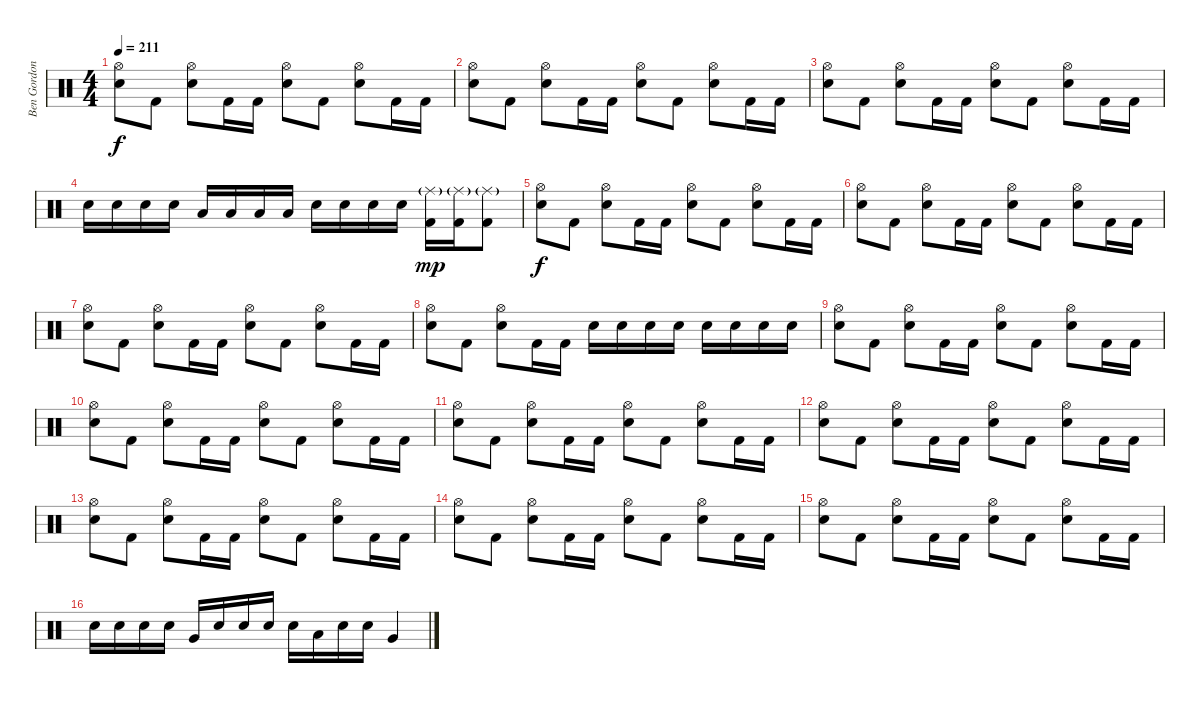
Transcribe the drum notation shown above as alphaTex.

\track ("Ben Gordon" "Ben Gordon") {instrument percussion}
\staff {score}
\articulation defaults
\ts (4 4)
\tempo 211
\clef neutral
\ks c
("Hi-Hat (open)" "Electric Snare (hit)").8{dy f} "Kick (hit) 2".8 ("Hi-Hat (open)" "Electric Snare (hit)").8 "Kick (hit) 2".16 "Kick (hit) 2".16 ("Hi-Hat (open)" "Electric Snare (hit)").8 "Kick (hit) 2".8 ("Hi-Hat (open)" "Electric Snare (hit)").8 "Kick (hit) 2".16 "Kick (hit) 2".16 |
("Hi-Hat (open)" "Electric Snare (hit)").8 "Kick (hit) 2".8 ("Hi-Hat (open)" "Electric Snare (hit)").8 "Kick (hit) 2".16 "Kick (hit) 2".16 ("Hi-Hat (open)" "Electric Snare (hit)").8 "Kick (hit) 2".8 ("Hi-Hat (open)" "Electric Snare (hit)").8 "Kick (hit) 2".16 "Kick (hit) 2".16 |
("Hi-Hat (open)" "Electric Snare (hit)").8 "Kick (hit) 2".8 ("Hi-Hat (open)" "Electric Snare (hit)").8 "Kick (hit) 2".16 "Kick (hit) 2".16 ("Hi-Hat (open)" "Electric Snare (hit)").8 "Kick (hit) 2".8 ("Hi-Hat (open)" "Electric Snare (hit)").8 "Kick (hit) 2".16 "Kick (hit) 2".16 |
"Electric Snare (hit)".16 "Electric Snare (hit)".16 "Electric Snare (hit)".16 "Electric Snare (hit)".16 "Low Tom (hit)".16 "Low Tom (hit)".16 "Low Tom (hit)".16 "Low Tom (hit)".16 "Electric Snare (hit)".16 "Electric Snare (hit)".16 "Electric Snare (hit)".16 "Electric Snare (hit)".16 ("Ride (middle)"{g} "Kick (hit) 2").16{dy mp} ("Ride (middle)"{g} "Kick (hit) 2").16 ("Ride (middle)"{g} "Kick (hit) 2").8 |
("Hi-Hat (open)" "Electric Snare (hit)").8{dy f} "Kick (hit) 2".8 ("Hi-Hat (open)" "Electric Snare (hit)").8 "Kick (hit) 2".16 "Kick (hit) 2".16 ("Hi-Hat (open)" "Electric Snare (hit)").8 "Kick (hit) 2".8 ("Hi-Hat (open)" "Electric Snare (hit)").8 "Kick (hit) 2".16 "Kick (hit) 2".16 |
("Hi-Hat (open)" "Electric Snare (hit)").8 "Kick (hit) 2".8 ("Hi-Hat (open)" "Electric Snare (hit)").8 "Kick (hit) 2".16 "Kick (hit) 2".16 ("Hi-Hat (open)" "Electric Snare (hit)").8 "Kick (hit) 2".8 ("Hi-Hat (open)" "Electric Snare (hit)").8 "Kick (hit) 2".16 "Kick (hit) 2".16 |
("Hi-Hat (open)" "Electric Snare (hit)").8 "Kick (hit) 2".8 ("Hi-Hat (open)" "Electric Snare (hit)").8 "Kick (hit) 2".16 "Kick (hit) 2".16 ("Hi-Hat (open)" "Electric Snare (hit)").8 "Kick (hit) 2".8 ("Hi-Hat (open)" "Electric Snare (hit)").8 "Kick (hit) 2".16 "Kick (hit) 2".16 |
("Hi-Hat (open)" "Electric Snare (hit)").8 "Kick (hit) 2".8 ("Hi-Hat (open)" "Electric Snare (hit)").8 "Kick (hit) 2".16 "Kick (hit) 2".16 "Electric Snare (hit)".16 "Electric Snare (hit)".16 "Electric Snare (hit)".16 "Electric Snare (hit)".16 "Electric Snare (hit)".16 "Electric Snare (hit)".16 "Electric Snare (hit)".16 "Electric Snare (hit)".16 |
("Hi-Hat (open)" "Electric Snare (hit)").8 "Kick (hit) 2".8 ("Hi-Hat (open)" "Electric Snare (hit)").8 "Kick (hit) 2".16 "Kick (hit) 2".16 ("Hi-Hat (open)" "Electric Snare (hit)").8 "Kick (hit) 2".8 ("Hi-Hat (open)" "Electric Snare (hit)").8 "Kick (hit) 2".16 "Kick (hit) 2".16 |
("Hi-Hat (open)" "Electric Snare (hit)").8 "Kick (hit) 2".8 ("Hi-Hat (open)" "Electric Snare (hit)").8 "Kick (hit) 2".16 "Kick (hit) 2".16 ("Hi-Hat (open)" "Electric Snare (hit)").8 "Kick (hit) 2".8 ("Hi-Hat (open)" "Electric Snare (hit)").8 "Kick (hit) 2".16 "Kick (hit) 2".16 |
("Hi-Hat (open)" "Electric Snare (hit)").8 "Kick (hit) 2".8 ("Hi-Hat (open)" "Electric Snare (hit)").8 "Kick (hit) 2".16 "Kick (hit) 2".16 ("Hi-Hat (open)" "Electric Snare (hit)").8 "Kick (hit) 2".8 ("Hi-Hat (open)" "Electric Snare (hit)").8 "Kick (hit) 2".16 "Kick (hit) 2".16 |
("Hi-Hat (open)" "Electric Snare (hit)").8 "Kick (hit) 2".8 ("Hi-Hat (open)" "Electric Snare (hit)").8 "Kick (hit) 2".16 "Kick (hit) 2".16 ("Hi-Hat (open)" "Electric Snare (hit)").8 "Kick (hit) 2".8 ("Hi-Hat (open)" "Electric Snare (hit)").8 "Kick (hit) 2".16 "Kick (hit) 2".16 |
("Hi-Hat (open)" "Electric Snare (hit)").8 "Kick (hit) 2".8 ("Hi-Hat (open)" "Electric Snare (hit)").8 "Kick (hit) 2".16 "Kick (hit) 2".16 ("Hi-Hat (open)" "Electric Snare (hit)").8 "Kick (hit) 2".8 ("Hi-Hat (open)" "Electric Snare (hit)").8 "Kick (hit) 2".16 "Kick (hit) 2".16 |
("Hi-Hat (open)" "Electric Snare (hit)").8 "Kick (hit) 2".8 ("Hi-Hat (open)" "Electric Snare (hit)").8 "Kick (hit) 2".16 "Kick (hit) 2".16 ("Hi-Hat (open)" "Electric Snare (hit)").8 "Kick (hit) 2".8 ("Hi-Hat (open)" "Electric Snare (hit)").8 "Kick (hit) 2".16 "Kick (hit) 2".16 |
("Hi-Hat (open)" "Electric Snare (hit)").8 "Kick (hit) 2".8 ("Hi-Hat (open)" "Electric Snare (hit)").8 "Kick (hit) 2".16 "Kick (hit) 2".16 ("Hi-Hat (open)" "Electric Snare (hit)").8 "Kick (hit) 2".8 ("Hi-Hat (open)" "Electric Snare (hit)").8 "Kick (hit) 2".16 "Kick (hit) 2".16 |
"Electric Snare (hit)".16 "Electric Snare (hit)".16 "Electric Snare (hit)".16 "Electric Snare (hit)".16 "Very Low Tom (hit)".16 "Electric Snare (hit)".16 "Electric Snare (hit)".16 "Electric Snare (hit)".16 "Electric Snare (hit)".16 "Low Tom (hit)".16 "Electric Snare (hit)".16 "Electric Snare (hit)".16 "Very Low Tom (hit)".4
